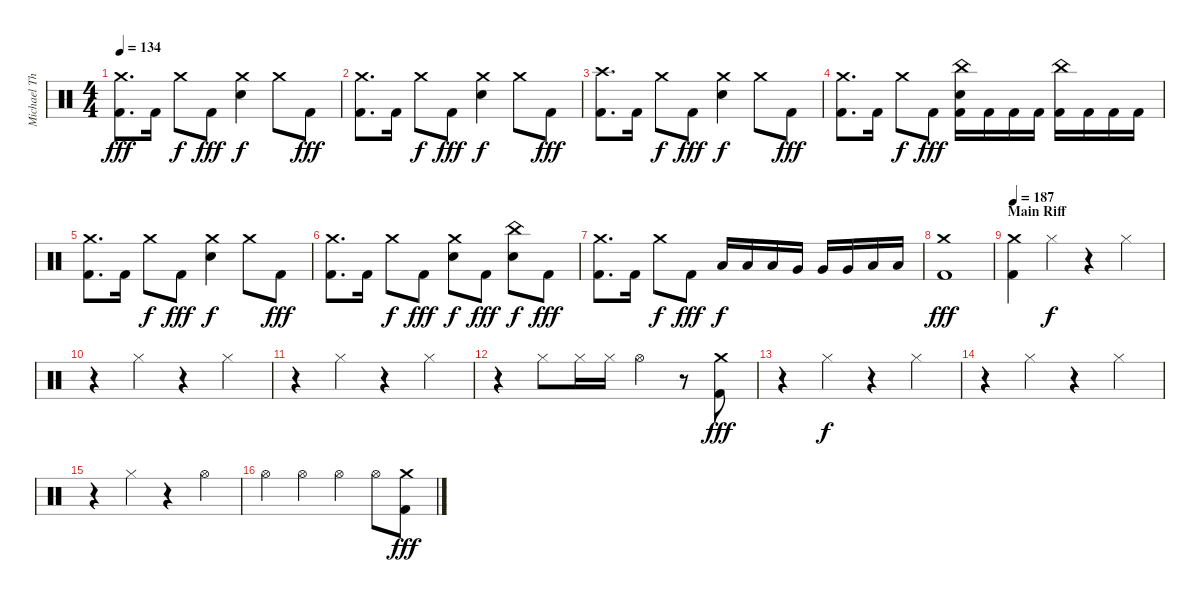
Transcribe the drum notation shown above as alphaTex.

\track ("Michael Thomas" "Michael Th") {instrument percussion}
\staff {score}
\articulation defaults
\ts (4 4)
\tempo 134
\clef neutral
\ks c
("Crash medium (hit)" "Kick (hit) 2").8{d dy fff} "Kick (hit) 2".16 "Crash medium (hit)".8{dy f} "Kick (hit) 2".8{dy fff} ("Crash medium (hit)" "Electric Snare (hit)").4{dy f} "Crash medium (hit)".8 "Kick (hit) 2".8{dy fff} |
("Crash medium (hit)" "Kick (hit) 2").8{d} "Kick (hit) 2".16 "Crash medium (hit)".8{dy f} "Kick (hit) 2".8{dy fff} ("Crash medium (hit)" "Electric Snare (hit)").4{dy f} "Crash medium (hit)".8 "Kick (hit) 2".8{dy fff} |
("Crash high (hit)" "Kick (hit) 2").8{d} "Kick (hit) 2".16 "Crash medium (hit)".8{dy f} "Kick (hit) 2".8{dy fff} ("Crash medium (hit)" "Electric Snare (hit)").4{dy f} "Crash medium (hit)".8 "Kick (hit) 2".8{dy fff} |
("Crash medium (hit)" "Kick (hit) 2").8{d} "Kick (hit) 2".16 "Crash medium (hit)".8{dy f} "Kick (hit) 2".8{dy fff} ("China (hit)" "Electric Snare (hit)" "Kick (hit) 2").16 "Kick (hit) 2".16 "Kick (hit) 2".16 "Kick (hit) 2".16 ("China (hit)" "Kick (hit) 2").16 "Kick (hit) 2".16 "Kick (hit) 2".16 "Kick (hit) 2".16 |
("Crash medium (hit)" "Kick (hit) 2").8{d} "Kick (hit) 2".16 "Crash medium (hit)".8{dy f} "Kick (hit) 2".8{dy fff} ("Crash medium (hit)" "Electric Snare (hit)").4{dy f} "Crash medium (hit)".8 "Kick (hit) 2".8{dy fff} |
("Crash medium (hit)" "Kick (hit) 2").8{d} "Kick (hit) 2".16 "Crash medium (hit)".8{dy f} "Kick (hit) 2".8{dy fff} ("Crash medium (hit)" "Electric Snare (hit)").8{dy f} "Kick (hit) 2".8{dy fff} ("China (hit)" "Electric Snare (hit)").8{dy f} "Kick (hit) 2".8{dy fff} |
("Crash medium (hit)" "Kick (hit) 2").8{d} "Kick (hit) 2".16 "Crash medium (hit)".8{dy f} "Kick (hit) 2".8{dy fff} "Low Tom (hit)".16{dy f} "Low Tom (hit)".16 "Low Tom (hit)".16 "Very Low Tom (hit)".16 "Very Low Tom (hit)".16 "Very Low Tom (hit)".16 "Low Floor Tom (hit)".16 "Low Floor Tom (hit)".16 |
("Crash medium (hit)" "Kick (hit) 2").1{dy fff} |
\section ("" "Main Riff")
\tempo 187
("Crash medium (hit)" "Kick (hit) 2").4 "Hi-Hat (closed)".4{dy f} r.4 "Hi-Hat (closed)".4 |
r.4 "Hi-Hat (closed)".4 r.4 "Hi-Hat (closed)".4 |
r.4 "Hi-Hat (closed)".4 r.4 "Hi-Hat (closed)".4 |
r.4 "Hi-Hat (closed)".8 "Hi-Hat (closed)".16 "Hi-Hat (closed)".16 "Hi-Hat (open)".4 r.8 ("Crash medium (hit)" "Kick (hit) 2").8{dy fff} |
r.4 "Hi-Hat (closed)".4{dy f} r.4 "Hi-Hat (closed)".4 |
r.4 "Hi-Hat (closed)".4 r.4 "Hi-Hat (closed)".4 |
r.4 "Hi-Hat (closed)".4 r.4 "Hi-Hat (open)".4 |
"Hi-Hat (open)".4 "Hi-Hat (open)".4 "Hi-Hat (open)".4 "Hi-Hat (open)".8 ("Crash medium (hit)" "Kick (hit) 2").8{dy fff}
